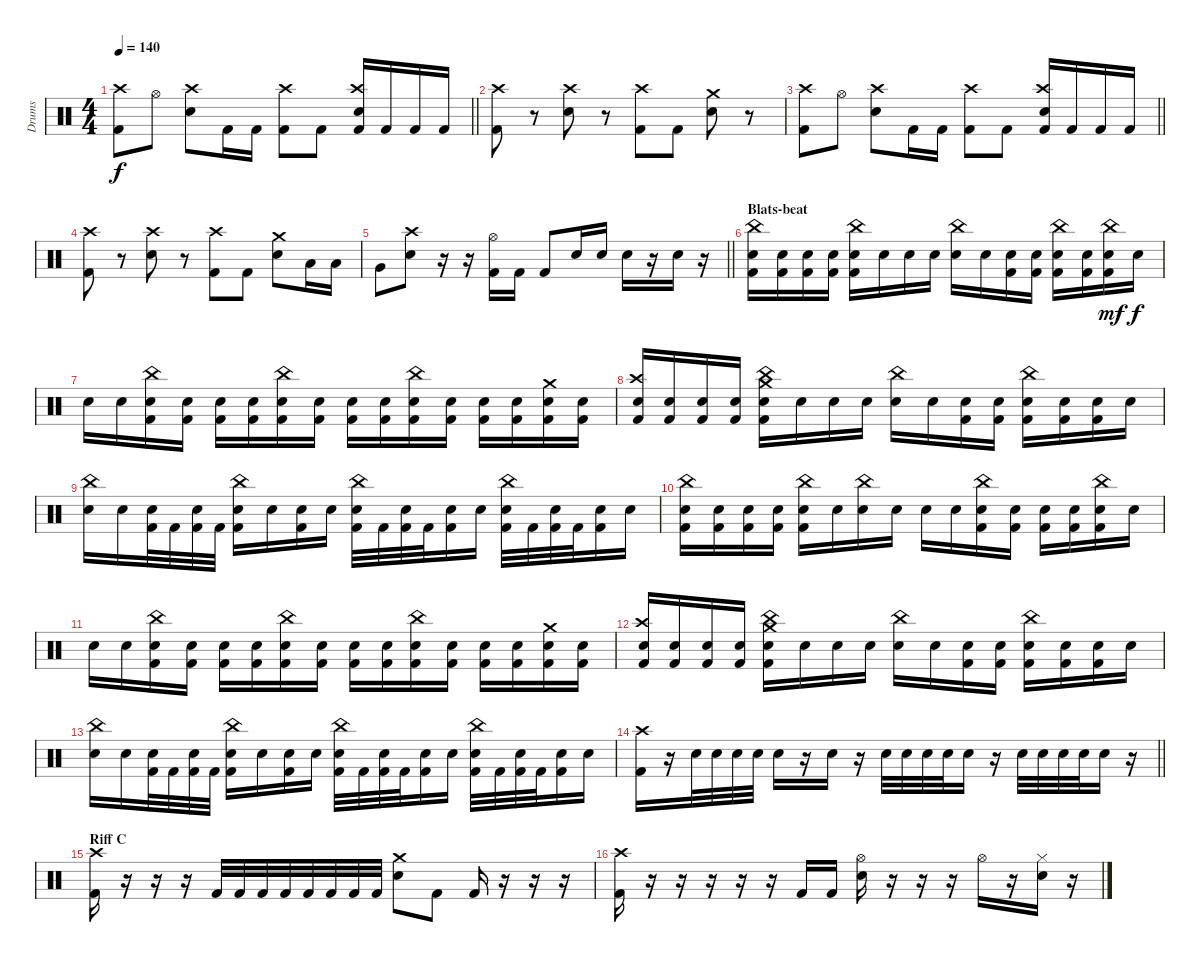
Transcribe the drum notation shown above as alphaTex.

\track ("Drums" "Drums") {instrument percussion}
\staff {score}
\articulation defaults
\ts (4 4)
\tempo 140
\clef neutral
\barLineRight lightlight
\ks c
("Kick (hit) 2" "Crash high (hit)").8{dy f} "Hi-Hat (open)".8 ("Electric Snare (hit)" "Crash high (hit)").8 "Kick (hit) 2".16 "Kick (hit) 2".16 ("Kick (hit) 2" "Crash high (hit)").8 "Kick (hit) 2".8 ("Kick (hit) 2" "Electric Snare (hit)" "Crash high (hit)").16 "Kick (hit) 2".16 "Kick (hit) 2".16 "Kick (hit) 2".16 |
("Kick (hit) 2" "Crash high (hit)").8 r.8 ("Electric Snare (hit)" "Crash high (hit)").8 r.8 ("Kick (hit) 2" "Crash high (hit)").8 "Kick (hit) 2".8 ("Electric Snare (hit)" "Crash medium (hit)").8 r.8 |
\barLineRight lightlight
("Kick (hit) 2" "Crash high (hit)").8 "Hi-Hat (open)".8 ("Electric Snare (hit)" "Crash high (hit)").8 "Kick (hit) 2".16 "Kick (hit) 2".16 ("Kick (hit) 2" "Crash high (hit)").8 "Kick (hit) 2".8 ("Kick (hit) 2" "Electric Snare (hit)" "Crash high (hit)").16 "Kick (hit) 2".16 "Kick (hit) 2".16 "Kick (hit) 2".16 |
("Kick (hit) 2" "Crash high (hit)").8 r.8 ("Electric Snare (hit)" "Crash high (hit)").8 r.8 ("Kick (hit) 2" "Crash high (hit)").8 "Kick (hit) 2".8 ("Electric Snare (hit)" "Crash medium (hit)").8 "Low Tom (hit)".16 "Low Tom (hit)".16 |
\barLineRight lightlight "Very Low Tom (hit)".8
("Electric Snare (hit)" "Crash high (hit)").8 r.16 r.16 ("Kick (hit) 2" "Hi-Hat (open)").16 "Kick (hit) 2".16 "Kick (hit) 2".8 "Electric Snare (hit)".16 "Electric Snare (hit)".16 "Electric Snare (hit)".16 r.16 "Electric Snare (hit)".16 r.16 |
\section ("" "Blats-beat")
("Kick (hit) 2" "Electric Snare (hit)" "China (hit)").16 ("Kick (hit) 2" "Electric Snare (hit)").16 ("Kick (hit) 2" "Electric Snare (hit)").16 ("Kick (hit) 2" "Electric Snare (hit)").16 ("Kick (hit) 2" "Electric Snare (hit)" "China (hit)").16 "Electric Snare (hit)".16 "Electric Snare (hit)".16 "Electric Snare (hit)".16 ("Electric Snare (hit)" "China (hit)").16 "Electric Snare (hit)".16 ("Kick (hit) 2" "Electric Snare (hit)").16 ("Kick (hit) 2" "Electric Snare (hit)").16 ("Kick (hit) 2" "Electric Snare (hit)" "China (hit)").16 ("Kick (hit) 2" "Electric Snare (hit)").16 ("Kick (hit) 2" "Electric Snare (hit)" "China (hit)").16{dy mf} "Electric Snare (hit)".16{dy f} |
"Electric Snare (hit)".16 "Electric Snare (hit)".16 ("Kick (hit) 2" "Electric Snare (hit)" "China (hit)").16 ("Kick (hit) 2" "Electric Snare (hit)").16 ("Kick (hit) 2" "Electric Snare (hit)").16 ("Kick (hit) 2" "Electric Snare (hit)").16 ("Kick (hit) 2" "Electric Snare (hit)" "China (hit)").16 ("Kick (hit) 2" "Electric Snare (hit)").16 ("Kick (hit) 2" "Electric Snare (hit)").16 ("Kick (hit) 2" "Electric Snare (hit)").16 ("Kick (hit) 2" "Electric Snare (hit)" "China (hit)").16 ("Kick (hit) 2" "Electric Snare (hit)").16 ("Kick (hit) 2" "Electric Snare (hit)").16 ("Kick (hit) 2" "Electric Snare (hit)").16 ("Kick (hit) 2" "Electric Snare (hit)" "Crash medium (hit)").16 ("Kick (hit) 2" "Electric Snare (hit)").16 |
("Kick (hit) 2" "Electric Snare (hit)" "Crash high (hit)").16 ("Kick (hit) 2" "Electric Snare (hit)").16 ("Kick (hit) 2" "Electric Snare (hit)").16 ("Kick (hit) 2" "Electric Snare (hit)").16 ("Kick (hit) 2" "Electric Snare (hit)" "China (hit)" "Crash medium (hit)").16 "Electric Snare (hit)".16 "Electric Snare (hit)".16 "Electric Snare (hit)".16 ("Electric Snare (hit)" "China (hit)").16 "Electric Snare (hit)".16 ("Kick (hit) 2" "Electric Snare (hit)").16 ("Kick (hit) 2" "Electric Snare (hit)").16 ("Kick (hit) 2" "Electric Snare (hit)" "China (hit)").16 ("Kick (hit) 2" "Electric Snare (hit)").16 ("Kick (hit) 2" "Electric Snare (hit)").16 "Electric Snare (hit)".16 |
("Electric Snare (hit)" "China (hit)").16 "Electric Snare (hit)".16 ("Kick (hit) 2" "Electric Snare (hit)").32 "Kick (hit) 2".32 ("Kick (hit) 2" "Electric Snare (hit)").32 "Kick (hit) 2".32 ("Kick (hit) 2" "Electric Snare (hit)" "China (hit)").16 "Electric Snare (hit)".16 ("Kick (hit) 2" "Electric Snare (hit)").16 "Electric Snare (hit)".16 ("Kick (hit) 2" "Electric Snare (hit)" "China (hit)").32 "Kick (hit) 2".32 ("Kick (hit) 2" "Electric Snare (hit)").32 "Kick (hit) 2".32 ("Kick (hit) 2" "Electric Snare (hit)").16 "Electric Snare (hit)".16 ("Kick (hit) 2" "Electric Snare (hit)" "China (hit)").32 "Kick (hit) 2".32 ("Kick (hit) 2" "Electric Snare (hit)").32 "Kick (hit) 2".32 ("Kick (hit) 2" "Electric Snare (hit)").16 "Electric Snare (hit)".16 |
("Kick (hit) 2" "Electric Snare (hit)" "China (hit)").16 ("Kick (hit) 2" "Electric Snare (hit)").16 ("Kick (hit) 2" "Electric Snare (hit)").16 ("Kick (hit) 2" "Electric Snare (hit)").16 ("Kick (hit) 2" "Electric Snare (hit)" "China (hit)").16 "Electric Snare (hit)".16 ("Electric Snare (hit)" "China (hit)").16 "Electric Snare (hit)".16 "Electric Snare (hit)".16 "Electric Snare (hit)".16 ("Kick (hit) 2" "Electric Snare (hit)" "China (hit)").16 ("Kick (hit) 2" "Electric Snare (hit)").16 ("Kick (hit) 2" "Electric Snare (hit)").16 ("Kick (hit) 2" "Electric Snare (hit)").16 ("Kick (hit) 2" "Electric Snare (hit)" "China (hit)").16 "Electric Snare (hit)".16 |
"Electric Snare (hit)".16 "Electric Snare (hit)".16 ("Kick (hit) 2" "Electric Snare (hit)" "China (hit)").16 ("Kick (hit) 2" "Electric Snare (hit)").16 ("Kick (hit) 2" "Electric Snare (hit)").16 ("Kick (hit) 2" "Electric Snare (hit)").16 ("Kick (hit) 2" "Electric Snare (hit)" "China (hit)").16 ("Kick (hit) 2" "Electric Snare (hit)").16 ("Kick (hit) 2" "Electric Snare (hit)").16 ("Kick (hit) 2" "Electric Snare (hit)").16 ("Kick (hit) 2" "Electric Snare (hit)" "China (hit)").16 ("Kick (hit) 2" "Electric Snare (hit)").16 ("Kick (hit) 2" "Electric Snare (hit)").16 ("Kick (hit) 2" "Electric Snare (hit)").16 ("Kick (hit) 2" "Electric Snare (hit)" "Crash medium (hit)").16 ("Kick (hit) 2" "Electric Snare (hit)").16 |
("Kick (hit) 2" "Electric Snare (hit)" "Crash high (hit)").16 ("Kick (hit) 2" "Electric Snare (hit)").16 ("Kick (hit) 2" "Electric Snare (hit)").16 ("Kick (hit) 2" "Electric Snare (hit)").16 ("Kick (hit) 2" "Electric Snare (hit)" "China (hit)" "Crash medium (hit)").16 "Electric Snare (hit)".16 "Electric Snare (hit)".16 "Electric Snare (hit)".16 ("Electric Snare (hit)" "China (hit)").16 "Electric Snare (hit)".16 ("Kick (hit) 2" "Electric Snare (hit)").16 ("Kick (hit) 2" "Electric Snare (hit)").16 ("Kick (hit) 2" "Electric Snare (hit)" "China (hit)").16 ("Kick (hit) 2" "Electric Snare (hit)").16 ("Kick (hit) 2" "Electric Snare (hit)").16 "Electric Snare (hit)".16 |
("Electric Snare (hit)" "China (hit)").16 "Electric Snare (hit)".16 ("Kick (hit) 2" "Electric Snare (hit)").32 "Kick (hit) 2".32 ("Kick (hit) 2" "Electric Snare (hit)").32 "Kick (hit) 2".32 ("Kick (hit) 2" "Electric Snare (hit)" "China (hit)").16 "Electric Snare (hit)".16 ("Kick (hit) 2" "Electric Snare (hit)").16 "Electric Snare (hit)".16 ("Kick (hit) 2" "Electric Snare (hit)" "China (hit)").32 "Kick (hit) 2".32 ("Kick (hit) 2" "Electric Snare (hit)").32 "Kick (hit) 2".32 ("Kick (hit) 2" "Electric Snare (hit)").16 "Electric Snare (hit)".16 ("Kick (hit) 2" "Electric Snare (hit)" "China (hit)").32 "Kick (hit) 2".32 ("Kick (hit) 2" "Electric Snare (hit)").32 "Kick (hit) 2".32 ("Kick (hit) 2" "Electric Snare (hit)").16 "Electric Snare (hit)".16 |
\barLineRight lightlight
("Kick (hit) 2" "Crash high (hit)").16 r.16 "Electric Snare (hit)".32 "Electric Snare (hit)".32 "Electric Snare (hit)".32 "Electric Snare (hit)".32 "Electric Snare (hit)".16 r.16 "Electric Snare (hit)".16 r.16 "Electric Snare (hit)".32 "Electric Snare (hit)".32 "Electric Snare (hit)".32 "Electric Snare (hit)".32 "Electric Snare (hit)".16 r.16 "Electric Snare (hit)".32 "Electric Snare (hit)".32 "Electric Snare (hit)".32 "Electric Snare (hit)".32 "Electric Snare (hit)".16 r.16 |
\section ("" "Riff C")
("Kick (hit) 2" "Crash high (hit)").16 r.16 r.16 r.16 "Kick (hit) 2".32 "Kick (hit) 2".32 "Kick (hit) 2".32 "Kick (hit) 2".32 "Kick (hit) 2".32 "Kick (hit) 2".32 "Kick (hit) 2".32 "Kick (hit) 2".32 ("Electric Snare (hit)" "Crash medium (hit)").8 "Kick (hit) 2".8 "Kick (hit) 2".16 r.16 r.16 r.16 |
("Kick (hit) 2" "Crash high (hit)").16 r.16 r.16 r.16 r.16 r.16 "Kick (hit) 2".16 "Kick (hit) 2".16 ("Electric Snare (hit)" "Hi-Hat (open)").16 r.16 r.16 r.16 "Hi-Hat (open)".16 r.16 ("Electric Snare (hit)" "Hi-Hat (closed)").16 r.16
